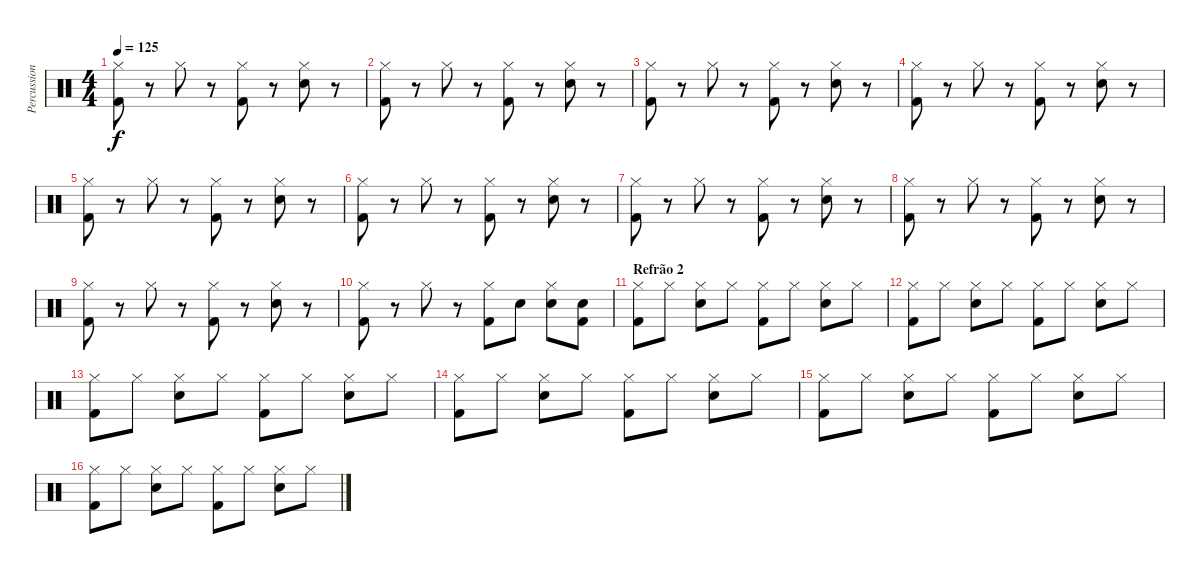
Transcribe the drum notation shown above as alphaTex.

\track ("Percussion" "Percussion") {instrument percussion}
\staff {score}
\articulation defaults
\ts (4 4)
\tempo 125
\clef neutral
\ks c
("Kick (hit) 2" "Hi-Hat (closed)").8{dy f} r.8 "Hi-Hat (closed)".8 r.8 ("Kick (hit) 2" "Hi-Hat (closed)").8 r.8 ("Electric Snare (hit)" "Hi-Hat (closed)").8 r.8 |
("Kick (hit) 2" "Hi-Hat (closed)").8 r.8 "Hi-Hat (closed)".8 r.8 ("Kick (hit) 2" "Hi-Hat (closed)").8 r.8 ("Electric Snare (hit)" "Hi-Hat (closed)").8 r.8 |
("Kick (hit) 2" "Hi-Hat (closed)").8 r.8 "Hi-Hat (closed)".8 r.8 ("Kick (hit) 2" "Hi-Hat (closed)").8 r.8 ("Electric Snare (hit)" "Hi-Hat (closed)").8 r.8 |
("Kick (hit) 2" "Hi-Hat (closed)").8 r.8 "Hi-Hat (closed)".8 r.8 ("Kick (hit) 2" "Hi-Hat (closed)").8 r.8 ("Electric Snare (hit)" "Hi-Hat (closed)").8 r.8 |
("Kick (hit) 2" "Hi-Hat (closed)").8 r.8 "Hi-Hat (closed)".8 r.8 ("Kick (hit) 2" "Hi-Hat (closed)").8 r.8 ("Electric Snare (hit)" "Hi-Hat (closed)").8 r.8 |
("Kick (hit) 2" "Hi-Hat (closed)").8 r.8 "Hi-Hat (closed)".8 r.8 ("Kick (hit) 2" "Hi-Hat (closed)").8 r.8 ("Electric Snare (hit)" "Hi-Hat (closed)").8 r.8 |
("Kick (hit) 2" "Hi-Hat (closed)").8 r.8 "Hi-Hat (closed)".8 r.8 ("Kick (hit) 2" "Hi-Hat (closed)").8 r.8 ("Electric Snare (hit)" "Hi-Hat (closed)").8 r.8 |
("Kick (hit) 2" "Hi-Hat (closed)").8 r.8 "Hi-Hat (closed)".8 r.8 ("Kick (hit) 2" "Hi-Hat (closed)").8 r.8 ("Electric Snare (hit)" "Hi-Hat (closed)").8 r.8 |
("Kick (hit) 2" "Hi-Hat (closed)").8 r.8 "Hi-Hat (closed)".8 r.8 ("Kick (hit) 2" "Hi-Hat (closed)").8 r.8 ("Electric Snare (hit)" "Hi-Hat (closed)").8 r.8 |
("Kick (hit) 2" "Hi-Hat (closed)").8 r.8 "Hi-Hat (closed)".8 r.8 ("Kick (hit) 2" "Hi-Hat (closed)").8 "Electric Snare (hit)".8 ("Electric Snare (hit)" "Hi-Hat (closed)").8 ("Electric Snare (hit)" "Kick (hit) 2").8 |
\section ("" "Refrão 2")
("Kick (hit) 2" "Hi-Hat (closed)").8 "Hi-Hat (closed)".8 ("Electric Snare (hit)" "Hi-Hat (closed)").8 "Hi-Hat (closed)".8 ("Kick (hit) 2" "Hi-Hat (closed)").8 "Hi-Hat (closed)".8 ("Electric Snare (hit)" "Hi-Hat (closed)").8 "Hi-Hat (closed)".8 |
("Kick (hit) 2" "Hi-Hat (closed)").8 "Hi-Hat (closed)".8 ("Electric Snare (hit)" "Hi-Hat (closed)").8 "Hi-Hat (closed)".8 ("Kick (hit) 2" "Hi-Hat (closed)").8 "Hi-Hat (closed)".8 ("Electric Snare (hit)" "Hi-Hat (closed)").8 "Hi-Hat (closed)".8 |
("Kick (hit) 2" "Hi-Hat (closed)").8 "Hi-Hat (closed)".8 ("Electric Snare (hit)" "Hi-Hat (closed)").8 "Hi-Hat (closed)".8 ("Kick (hit) 2" "Hi-Hat (closed)").8 "Hi-Hat (closed)".8 ("Electric Snare (hit)" "Hi-Hat (closed)").8 "Hi-Hat (closed)".8 |
("Kick (hit) 2" "Hi-Hat (closed)").8 "Hi-Hat (closed)".8 ("Electric Snare (hit)" "Hi-Hat (closed)").8 "Hi-Hat (closed)".8 ("Kick (hit) 2" "Hi-Hat (closed)").8 "Hi-Hat (closed)".8 ("Electric Snare (hit)" "Hi-Hat (closed)").8 "Hi-Hat (closed)".8 |
("Kick (hit) 2" "Hi-Hat (closed)").8 "Hi-Hat (closed)".8 ("Electric Snare (hit)" "Hi-Hat (closed)").8 "Hi-Hat (closed)".8 ("Kick (hit) 2" "Hi-Hat (closed)").8 "Hi-Hat (closed)".8 ("Electric Snare (hit)" "Hi-Hat (closed)").8 "Hi-Hat (closed)".8 |
("Kick (hit) 2" "Hi-Hat (closed)").8 "Hi-Hat (closed)".8 ("Electric Snare (hit)" "Hi-Hat (closed)").8 "Hi-Hat (closed)".8 ("Kick (hit) 2" "Hi-Hat (closed)").8 "Hi-Hat (closed)".8 ("Electric Snare (hit)" "Hi-Hat (closed)").8 "Hi-Hat (closed)".8
